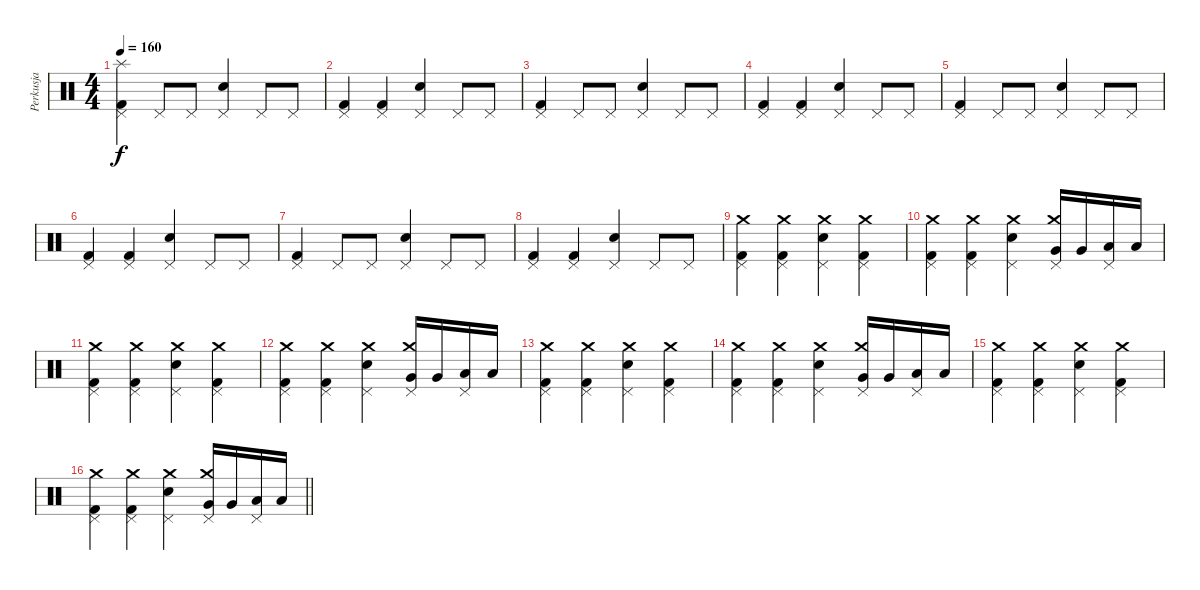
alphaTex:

\track ("Perkusja" "Perkusja") {instrument percussion}
\staff {score}
\articulation defaults
\ts (4 4)
\tempo 160
\clef neutral
\ks c
("Splash (hit)" "Kick (hit) 2" "Pedal Hi-Hat (hit)").4{dy f} "Pedal Hi-Hat (hit)".8 "Pedal Hi-Hat (hit)".8 ("Snare (hit) 2" "Pedal Hi-Hat (hit)").4 "Pedal Hi-Hat (hit)".8 "Pedal Hi-Hat (hit)".8 |
("Kick (hit) 2" "Pedal Hi-Hat (hit)").4 ("Kick (hit) 2" "Pedal Hi-Hat (hit)").4 ("Snare (hit) 2" "Pedal Hi-Hat (hit)").4 "Pedal Hi-Hat (hit)".8 "Pedal Hi-Hat (hit)".8 |
("Kick (hit) 2" "Pedal Hi-Hat (hit)").4 "Pedal Hi-Hat (hit)".8 "Pedal Hi-Hat (hit)".8 ("Snare (hit) 2" "Pedal Hi-Hat (hit)").4 "Pedal Hi-Hat (hit)".8 "Pedal Hi-Hat (hit)".8 |
("Kick (hit) 2" "Pedal Hi-Hat (hit)").4 ("Kick (hit) 2" "Pedal Hi-Hat (hit)").4 ("Snare (hit) 2" "Pedal Hi-Hat (hit)").4 "Pedal Hi-Hat (hit)".8 "Pedal Hi-Hat (hit)".8 |
("Kick (hit) 2" "Pedal Hi-Hat (hit)").4 "Pedal Hi-Hat (hit)".8 "Pedal Hi-Hat (hit)".8 ("Snare (hit) 2" "Pedal Hi-Hat (hit)").4 "Pedal Hi-Hat (hit)".8 "Pedal Hi-Hat (hit)".8 |
("Kick (hit) 2" "Pedal Hi-Hat (hit)").4 ("Kick (hit) 2" "Pedal Hi-Hat (hit)").4 ("Snare (hit) 2" "Pedal Hi-Hat (hit)").4 "Pedal Hi-Hat (hit)".8 "Pedal Hi-Hat (hit)".8 |
("Kick (hit) 2" "Pedal Hi-Hat (hit)").4 "Pedal Hi-Hat (hit)".8 "Pedal Hi-Hat (hit)".8 ("Snare (hit) 2" "Pedal Hi-Hat (hit)").4 "Pedal Hi-Hat (hit)".8 "Pedal Hi-Hat (hit)".8 |
("Kick (hit) 2" "Pedal Hi-Hat (hit)").4 ("Kick (hit) 2" "Pedal Hi-Hat (hit)").4 ("Snare (hit) 2" "Pedal Hi-Hat (hit)").4 "Pedal Hi-Hat (hit)".8 "Pedal Hi-Hat (hit)".8 |
("Crash medium (hit)" "Kick (hit) 2" "Pedal Hi-Hat (hit)").4 ("Crash medium (hit)" "Kick (hit) 2" "Pedal Hi-Hat (hit)").4 ("Crash medium (hit)" "Snare (hit) 2" "Pedal Hi-Hat (hit)").4 ("Crash medium (hit)" "Kick (hit) 2" "Pedal Hi-Hat (hit)").4 |
("Crash medium (hit)" "Kick (hit) 2" "Pedal Hi-Hat (hit)").4 ("Crash medium (hit)" "Kick (hit) 2" "Pedal Hi-Hat (hit)").4 ("Crash medium (hit)" "Snare (hit) 2" "Pedal Hi-Hat (hit)").4 ("Crash medium (hit)" "Very Low Tom (hit)" "Pedal Hi-Hat (hit)").16 "Very Low Tom (hit)".16 ("Low Tom (hit)" "Pedal Hi-Hat (hit)").16 "Low Tom (hit)".16 |
("Crash medium (hit)" "Kick (hit) 2" "Pedal Hi-Hat (hit)").4 ("Crash medium (hit)" "Kick (hit) 2" "Pedal Hi-Hat (hit)").4 ("Crash medium (hit)" "Snare (hit) 2" "Pedal Hi-Hat (hit)").4 ("Crash medium (hit)" "Kick (hit) 2" "Pedal Hi-Hat (hit)").4 |
("Crash medium (hit)" "Kick (hit) 2" "Pedal Hi-Hat (hit)").4 ("Crash medium (hit)" "Kick (hit) 2" "Pedal Hi-Hat (hit)").4 ("Crash medium (hit)" "Snare (hit) 2" "Pedal Hi-Hat (hit)").4 ("Crash medium (hit)" "Very Low Tom (hit)" "Pedal Hi-Hat (hit)").16 "Very Low Tom (hit)".16 ("Low Tom (hit)" "Pedal Hi-Hat (hit)").16 "Low Tom (hit)".16 |
("Crash medium (hit)" "Kick (hit) 2" "Pedal Hi-Hat (hit)").4 ("Crash medium (hit)" "Kick (hit) 2" "Pedal Hi-Hat (hit)").4 ("Crash medium (hit)" "Snare (hit) 2" "Pedal Hi-Hat (hit)").4 ("Crash medium (hit)" "Kick (hit) 2" "Pedal Hi-Hat (hit)").4 |
("Crash medium (hit)" "Kick (hit) 2" "Pedal Hi-Hat (hit)").4 ("Crash medium (hit)" "Kick (hit) 2" "Pedal Hi-Hat (hit)").4 ("Crash medium (hit)" "Snare (hit) 2" "Pedal Hi-Hat (hit)").4 ("Crash medium (hit)" "Very Low Tom (hit)" "Pedal Hi-Hat (hit)").16 "Very Low Tom (hit)".16 ("Low Tom (hit)" "Pedal Hi-Hat (hit)").16 "Low Tom (hit)".16 |
("Crash medium (hit)" "Kick (hit) 2" "Pedal Hi-Hat (hit)").4 ("Crash medium (hit)" "Kick (hit) 2" "Pedal Hi-Hat (hit)").4 ("Crash medium (hit)" "Snare (hit) 2" "Pedal Hi-Hat (hit)").4 ("Crash medium (hit)" "Kick (hit) 2" "Pedal Hi-Hat (hit)").4 |
\barLineRight lightlight
("Crash medium (hit)" "Kick (hit) 2" "Pedal Hi-Hat (hit)").4 ("Crash medium (hit)" "Kick (hit) 2" "Pedal Hi-Hat (hit)").4 ("Crash medium (hit)" "Snare (hit) 2" "Pedal Hi-Hat (hit)").4 ("Crash medium (hit)" "Very Low Tom (hit)" "Pedal Hi-Hat (hit)").16 "Very Low Tom (hit)".16 ("Low Tom (hit)" "Pedal Hi-Hat (hit)").16 "Low Tom (hit)".16
